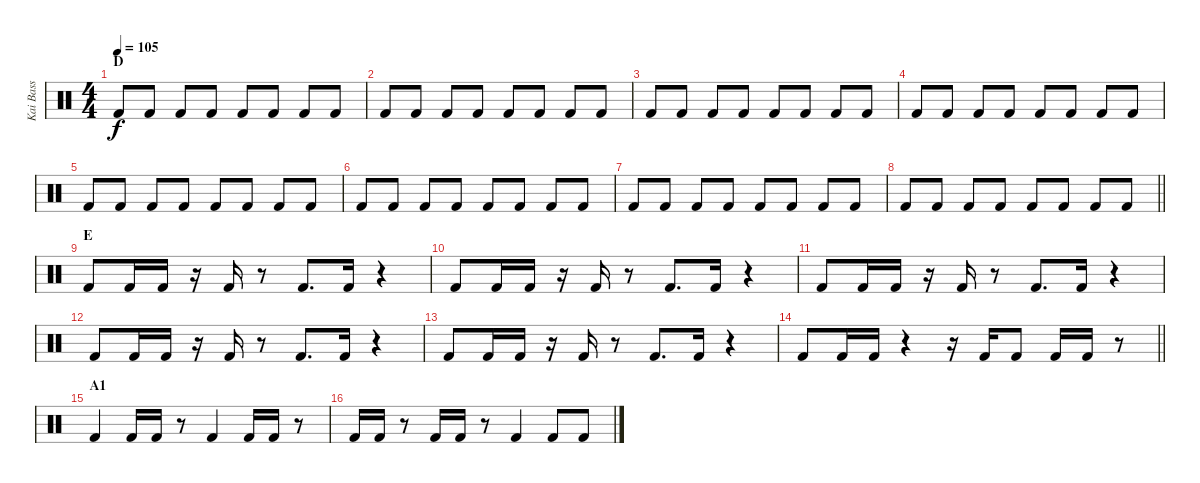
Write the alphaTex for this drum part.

\track ("Kai Bass" "Kai Bass") {instrument percussion}
\staff {score}
\articulation defaults
\ts (4 4)
\section ("" "D")
\tempo 105
\clef neutral
\ks c "Kick (hit) 2".8{dy f} "Kick (hit) 2".8 "Kick (hit) 2".8 "Kick (hit) 2".8 "Kick (hit) 2".8 "Kick (hit) 2".8 "Kick (hit) 2".8 "Kick (hit) 2".8
|
"Kick (hit) 2".8 "Kick (hit) 2".8 "Kick (hit) 2".8 "Kick (hit) 2".8 "Kick (hit) 2".8 "Kick (hit) 2".8 "Kick (hit) 2".8 "Kick (hit) 2".8 |
"Kick (hit) 2".8 "Kick (hit) 2".8 "Kick (hit) 2".8 "Kick (hit) 2".8 "Kick (hit) 2".8 "Kick (hit) 2".8 "Kick (hit) 2".8 "Kick (hit) 2".8 |
"Kick (hit) 2".8 "Kick (hit) 2".8 "Kick (hit) 2".8 "Kick (hit) 2".8 "Kick (hit) 2".8 "Kick (hit) 2".8 "Kick (hit) 2".8 "Kick (hit) 2".8 |
"Kick (hit) 2".8 "Kick (hit) 2".8 "Kick (hit) 2".8 "Kick (hit) 2".8 "Kick (hit) 2".8 "Kick (hit) 2".8 "Kick (hit) 2".8 "Kick (hit) 2".8 |
"Kick (hit) 2".8 "Kick (hit) 2".8 "Kick (hit) 2".8 "Kick (hit) 2".8 "Kick (hit) 2".8 "Kick (hit) 2".8 "Kick (hit) 2".8 "Kick (hit) 2".8 |
"Kick (hit) 2".8 "Kick (hit) 2".8 "Kick (hit) 2".8 "Kick (hit) 2".8 "Kick (hit) 2".8 "Kick (hit) 2".8 "Kick (hit) 2".8 "Kick (hit) 2".8 |
\barLineRight lightlight "Kick (hit) 2".8 "Kick (hit) 2".8 "Kick (hit) 2".8 "Kick (hit) 2".8 "Kick (hit) 2".8 "Kick (hit) 2".8 "Kick (hit) 2".8 "Kick (hit) 2".8
|
\section ("" "E")
"Kick (hit) 2".8 "Kick (hit) 2".16 "Kick (hit) 2".16 r.16 "Kick (hit) 2".16 r.8 "Kick (hit) 2".8{d} "Kick (hit) 2".16 r.4 |
"Kick (hit) 2".8 "Kick (hit) 2".16 "Kick (hit) 2".16 r.16 "Kick (hit) 2".16 r.8 "Kick (hit) 2".8{d} "Kick (hit) 2".16 r.4 |
"Kick (hit) 2".8 "Kick (hit) 2".16 "Kick (hit) 2".16 r.16 "Kick (hit) 2".16 r.8 "Kick (hit) 2".8{d} "Kick (hit) 2".16 r.4 |
"Kick (hit) 2".8 "Kick (hit) 2".16 "Kick (hit) 2".16 r.16 "Kick (hit) 2".16 r.8 "Kick (hit) 2".8{d} "Kick (hit) 2".16 r.4 |
"Kick (hit) 2".8 "Kick (hit) 2".16 "Kick (hit) 2".16 r.16 "Kick (hit) 2".16 r.8 "Kick (hit) 2".8{d} "Kick (hit) 2".16 r.4 |
\barLineRight lightlight "Kick (hit) 2".8 "Kick (hit) 2".16 "Kick (hit) 2".16
r.4 r.16 "Kick (hit) 2".16 "Kick (hit) 2".8 "Kick (hit) 2".16 "Kick (hit) 2".16 r.8 |
\section ("" "A1")
"Kick (hit) 2".4 "Kick (hit) 2".16 "Kick (hit) 2".16 r.8 "Kick (hit) 2".4 "Kick (hit) 2".16 "Kick (hit) 2".16 r.8 |
"Kick (hit) 2".16 "Kick (hit) 2".16 r.8 "Kick (hit) 2".16 "Kick (hit) 2".16 r.8 "Kick (hit) 2".4 "Kick (hit) 2".8 "Kick (hit) 2".8
